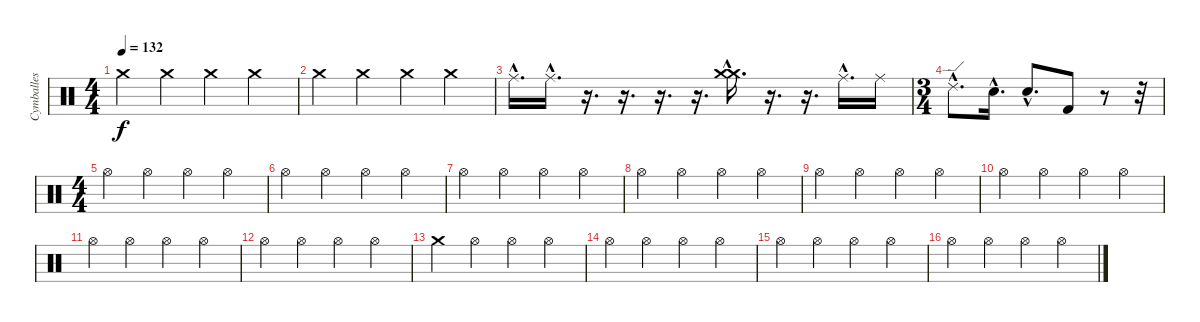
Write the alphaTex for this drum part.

\track ("Cymballes" "Cymballes") {instrument percussion}
\staff {score}
\articulation defaults
\ts (4 4)
\tempo 132
\clef neutral
\ks c "Crash medium (hit)".4{dy f} "Crash medium (hit)".4 "Crash medium (hit)".4 "Crash medium (hit)".4
|
"Crash medium (hit)".4 "Crash medium (hit)".4 "Crash medium (hit)".4 "Crash medium (hit)".4 |
"Ride (middle)"{hac}.16{d} "Ride (middle)"{hac}.16{d} r.16{d} r.16{d} r.16{d} r.16{d} ("Crash medium (hit)"{hac} "Crash medium (hit)"{hac}).16{d} r.16{d} r.16{d} "Ride (middle)"{hac}.16{d} "Ride (middle)".16 |
\ts (3 4)
"Ride (edge) 2"{hac}.8{d} "Electric Snare (hit)"{hac}.16{d} "Electric Snare (hit)"{hac}.8{d} "Kick (hit) 2".8 r.8 r.32 |
\ts (4 4)
"Hi-Hat (open)".4 "Hi-Hat (open)".4 "Hi-Hat (open)".4 "Hi-Hat (open)".4 |
"Hi-Hat (open)".4 "Hi-Hat (open)".4 "Hi-Hat (open)".4 "Hi-Hat (open)".4 |
"Hi-Hat (open)".4 "Hi-Hat (open)".4 "Hi-Hat (open)".4 "Hi-Hat (open)".4 |
"Hi-Hat (open)".4 "Hi-Hat (open)".4 "Hi-Hat (open)".4 "Hi-Hat (open)".4 |
"Hi-Hat (open)".4 "Hi-Hat (open)".4 "Hi-Hat (open)".4 "Hi-Hat (open)".4 |
"Hi-Hat (open)".4 "Hi-Hat (open)".4 "Hi-Hat (open)".4 "Hi-Hat (open)".4 |
"Hi-Hat (open)".4 "Hi-Hat (open)".4 "Hi-Hat (open)".4 "Hi-Hat (open)".4 |
"Hi-Hat (open)".4 "Hi-Hat (open)".4 "Hi-Hat (open)".4 "Hi-Hat (open)".4 |
"Crash medium (hit)".4 "Hi-Hat (open)".4 "Hi-Hat (open)".4 "Hi-Hat (open)".4 |
"Hi-Hat (open)".4 "Hi-Hat (open)".4 "Hi-Hat (open)".4 "Hi-Hat (open)".4 |
"Hi-Hat (open)".4 "Hi-Hat (open)".4 "Hi-Hat (open)".4 "Hi-Hat (open)".4 |
"Hi-Hat (open)".4 "Hi-Hat (open)".4 "Hi-Hat (open)".4 "Hi-Hat (open)".4
